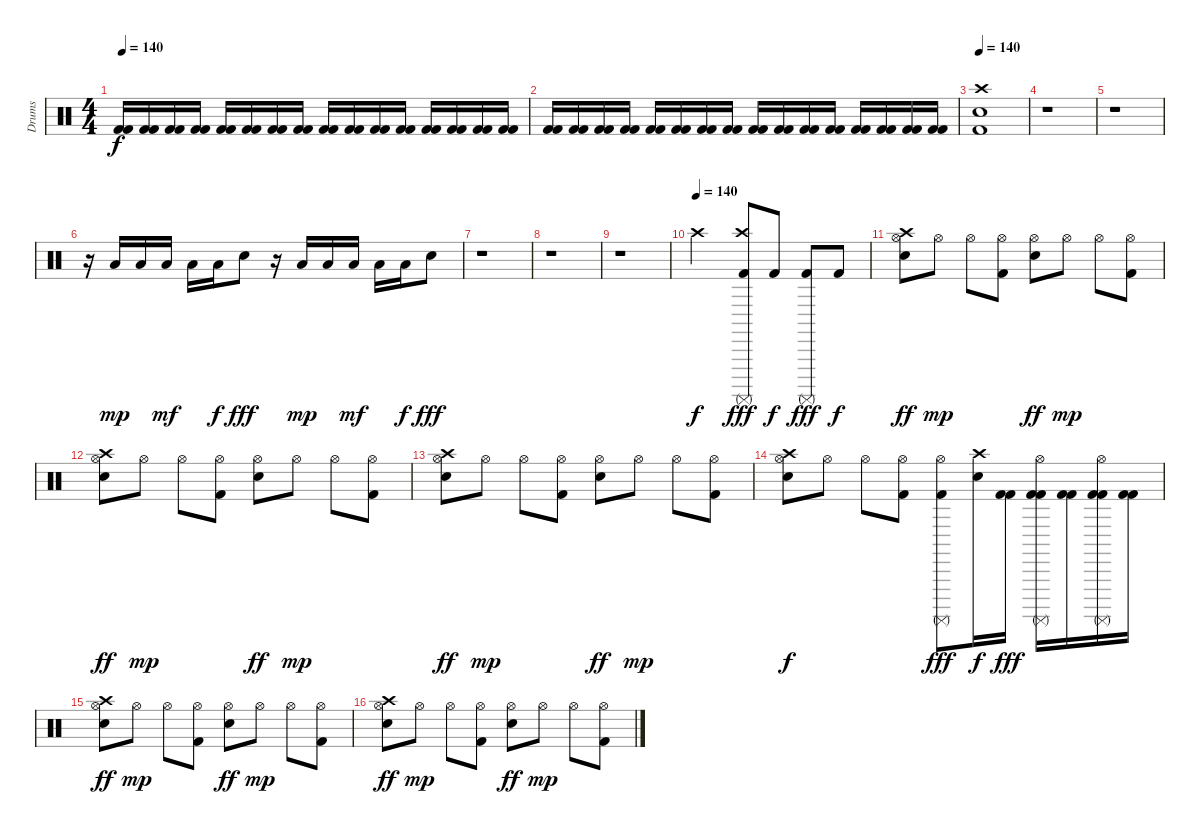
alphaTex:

\track ("Drums" "Drums") {instrument percussion}
\staff {score}
\articulation defaults
\ts (4 4)
\tempo 140
\clef neutral
\ks c
("Kick (hit) 2" "Kick (hit) 2").16{dy f} ("Kick (hit) 2" "Kick (hit) 2").16 ("Kick (hit) 2" "Kick (hit) 2").16 ("Kick (hit) 2" "Kick (hit) 2").16 ("Kick (hit) 2" "Kick (hit) 2").16 ("Kick (hit) 2" "Kick (hit) 2").16 ("Kick (hit) 2" "Kick (hit) 2").16 ("Kick (hit) 2" "Kick (hit) 2").16 ("Kick (hit) 2" "Kick (hit) 2").16 ("Kick (hit) 2" "Kick (hit) 2").16 ("Kick (hit) 2" "Kick (hit) 2").16 ("Kick (hit) 2" "Kick (hit) 2").16 ("Kick (hit) 2" "Kick (hit) 2").16 ("Kick (hit) 2" "Kick (hit) 2").16 ("Kick (hit) 2" "Kick (hit) 2").16 ("Kick (hit) 2" "Kick (hit) 2").16 |
("Kick (hit) 2" "Kick (hit) 2").16 ("Kick (hit) 2" "Kick (hit) 2").16 ("Kick (hit) 2" "Kick (hit) 2").16 ("Kick (hit) 2" "Kick (hit) 2").16 ("Kick (hit) 2" "Kick (hit) 2").16 ("Kick (hit) 2" "Kick (hit) 2").16 ("Kick (hit) 2" "Kick (hit) 2").16 ("Kick (hit) 2" "Kick (hit) 2").16 ("Kick (hit) 2" "Kick (hit) 2").16 ("Kick (hit) 2" "Kick (hit) 2").16 ("Kick (hit) 2" "Kick (hit) 2").16 ("Kick (hit) 2" "Kick (hit) 2").16 ("Kick (hit) 2" "Kick (hit) 2").16 ("Kick (hit) 2" "Kick (hit) 2").16 ("Kick (hit) 2" "Kick (hit) 2").16 ("Kick (hit) 2" "Kick (hit) 2").16 |
\tempo 140
("Crash high (hit)" "Snare (hit) 2" "Kick (hit) 2").1 |
r.1 |
r.1 |
r.16 "Low Tom (hit)".16{dy mp balance 16} "Low Tom (hit)".16 "Low Tom (hit)".16{dy mf} "Low Tom (hit)".16 "Low Tom (hit)".16{dy f} "Snare (hit) 2".8{dy fff} r.16 "Low Tom (hit)".16{dy mp balance 0} "Low Tom (hit)".16 "Low Tom (hit)".16{dy mf} "Low Tom (hit)".16 "Low Tom (hit)".16{dy f} "Snare (hit) 2".8{dy fff} |
r.1 |
r.1 |
r.1 |
\tempo (140)
"Crash high (hit)".2{dy f} ("Crash high (hit)" "Surdo (mute)" "Kick (hit) 2").8{dy fff} "Kick (hit) 2".8{dy f} ("Surdo (mute)" "Kick (hit) 2").8{dy fff} "Kick (hit) 2".8{dy f} |
("Hi-Hat (open)" "Crash high (hit)" "Snare (hit) 2").8{dy ff} "Hi-Hat (open)".8{dy mp} "Hi-Hat (open)".8 ("Hi-Hat (open)" "Kick (hit) 2").8 ("Hi-Hat (open)" "Snare (hit) 2").8{dy ff} "Hi-Hat (open)".8{dy mp} "Hi-Hat (open)".8 ("Hi-Hat (open)" "Kick (hit) 2").8 |
("Hi-Hat (open)" "Crash high (hit)" "Snare (hit) 2").8{dy ff} "Hi-Hat (open)".8{dy mp} "Hi-Hat (open)".8 ("Hi-Hat (open)" "Kick (hit) 2").8 ("Hi-Hat (open)" "Snare (hit) 2").8{dy ff} "Hi-Hat (open)".8{dy mp} "Hi-Hat (open)".8 ("Hi-Hat (open)" "Kick (hit) 2").8 |
("Hi-Hat (open)" "Crash high (hit)" "Snare (hit) 2").8{dy ff} "Hi-Hat (open)".8{dy mp} "Hi-Hat (open)".8 ("Hi-Hat (open)" "Kick (hit) 2").8 ("Hi-Hat (open)" "Snare (hit) 2").8{dy ff} "Hi-Hat (open)".8{dy mp} "Hi-Hat (open)".8 ("Hi-Hat (open)" "Kick (hit) 2").8 |
("Hi-Hat (open)" "Crash high (hit)" "Snare (hit) 2").8{dy f} "Hi-Hat (open)".8 "Hi-Hat (open)".8 ("Hi-Hat (open)" "Kick (hit) 2").8 ("Hi-Hat (open)" "Surdo (mute)" "Kick (hit) 2").8{dy fff} ("Crash high (hit)" "Snare (hit) 2").16{dy f} ("Kick (hit) 2" "Kick (hit) 2").16{dy fff} ("Hi-Hat (open)" "Surdo (mute)" "Kick (hit) 2" "Kick (hit) 2").16 ("Kick (hit) 2" "Kick (hit) 2").16 ("Hi-Hat (open)" "Surdo (mute)" "Kick (hit) 2" "Kick (hit) 2").16 ("Kick (hit) 2" "Kick (hit) 2").16 |
("Hi-Hat (open)" "Crash high (hit)" "Snare (hit) 2").8{dy ff} "Hi-Hat (open)".8{dy mp} "Hi-Hat (open)".8 ("Hi-Hat (open)" "Kick (hit) 2").8 ("Hi-Hat (open)" "Snare (hit) 2").8{dy ff} "Hi-Hat (open)".8{dy mp} "Hi-Hat (open)".8 ("Hi-Hat (open)" "Kick (hit) 2").8 |
("Hi-Hat (open)" "Crash high (hit)" "Snare (hit) 2").8{dy ff} "Hi-Hat (open)".8{dy mp} "Hi-Hat (open)".8 ("Hi-Hat (open)" "Kick (hit) 2").8 ("Hi-Hat (open)" "Snare (hit) 2").8{dy ff} "Hi-Hat (open)".8{dy mp} "Hi-Hat (open)".8 ("Hi-Hat (open)" "Kick (hit) 2").8
